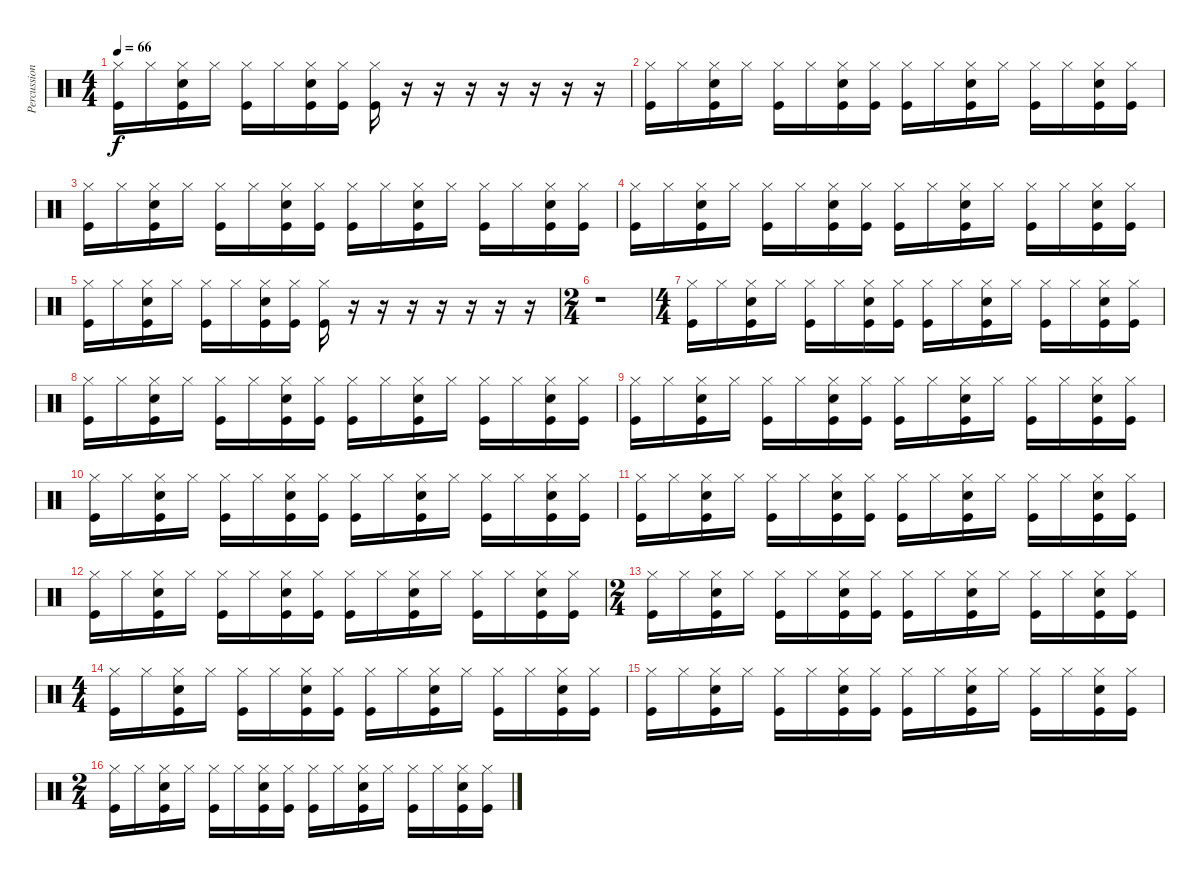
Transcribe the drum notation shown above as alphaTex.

\track ("Percussion" "Percussion") {instrument percussion}
\staff {score}
\articulation defaults
\ts (4 4)
\tempo 66
\clef neutral
\ks c
("Hi-Hat (closed)" "Kick (hit)").16{dy f} "Hi-Hat (closed)".16 ("Hi-Hat (closed)" "Kick (hit)" "Electric Snare (hit)").16 "Hi-Hat (closed)".16 ("Hi-Hat (closed)" "Kick (hit)").16 "Hi-Hat (closed)".16 ("Hi-Hat (closed)" "Kick (hit)" "Electric Snare (hit)").16 ("Hi-Hat (closed)" "Kick (hit)").16 ("Hi-Hat (closed)" "Kick (hit)").16 r.16 r.16 r.16 r.16 r.16 r.16 r.16 |
("Hi-Hat (closed)" "Kick (hit)").16 "Hi-Hat (closed)".16 ("Hi-Hat (closed)" "Kick (hit)" "Electric Snare (hit)").16 "Hi-Hat (closed)".16 ("Hi-Hat (closed)" "Kick (hit)").16 "Hi-Hat (closed)".16 ("Hi-Hat (closed)" "Kick (hit)" "Electric Snare (hit)").16 ("Hi-Hat (closed)" "Kick (hit)").16 ("Hi-Hat (closed)" "Kick (hit)").16 "Hi-Hat (closed)".16 ("Hi-Hat (closed)" "Kick (hit)" "Electric Snare (hit)").16 "Hi-Hat (closed)".16 ("Hi-Hat (closed)" "Kick (hit)").16 "Hi-Hat (closed)".16 ("Hi-Hat (closed)" "Kick (hit)" "Electric Snare (hit)").16 ("Hi-Hat (closed)" "Kick (hit)").16 |
("Hi-Hat (closed)" "Kick (hit)").16 "Hi-Hat (closed)".16 ("Hi-Hat (closed)" "Kick (hit)" "Electric Snare (hit)").16 "Hi-Hat (closed)".16 ("Hi-Hat (closed)" "Kick (hit)").16 "Hi-Hat (closed)".16 ("Hi-Hat (closed)" "Kick (hit)" "Electric Snare (hit)").16 ("Hi-Hat (closed)" "Kick (hit)").16 ("Hi-Hat (closed)" "Kick (hit)").16 "Hi-Hat (closed)".16 ("Hi-Hat (closed)" "Kick (hit)" "Electric Snare (hit)").16 "Hi-Hat (closed)".16 ("Hi-Hat (closed)" "Kick (hit)").16 "Hi-Hat (closed)".16 ("Hi-Hat (closed)" "Kick (hit)" "Electric Snare (hit)").16 ("Hi-Hat (closed)" "Kick (hit)").16 |
("Hi-Hat (closed)" "Kick (hit)").16 "Hi-Hat (closed)".16 ("Hi-Hat (closed)" "Kick (hit)" "Electric Snare (hit)").16 "Hi-Hat (closed)".16 ("Hi-Hat (closed)" "Kick (hit)").16 "Hi-Hat (closed)".16 ("Hi-Hat (closed)" "Kick (hit)" "Electric Snare (hit)").16 ("Hi-Hat (closed)" "Kick (hit)").16 ("Hi-Hat (closed)" "Kick (hit)").16 "Hi-Hat (closed)".16 ("Hi-Hat (closed)" "Kick (hit)" "Electric Snare (hit)").16 "Hi-Hat (closed)".16 ("Hi-Hat (closed)" "Kick (hit)").16 "Hi-Hat (closed)".16 ("Hi-Hat (closed)" "Kick (hit)" "Electric Snare (hit)").16 ("Hi-Hat (closed)" "Kick (hit)").16 |
("Hi-Hat (closed)" "Kick (hit)").16 "Hi-Hat (closed)".16 ("Hi-Hat (closed)" "Kick (hit)" "Electric Snare (hit)").16 "Hi-Hat (closed)".16 ("Hi-Hat (closed)" "Kick (hit)").16 "Hi-Hat (closed)".16 ("Hi-Hat (closed)" "Kick (hit)" "Electric Snare (hit)").16 ("Hi-Hat (closed)" "Kick (hit)").16 ("Hi-Hat (closed)" "Kick (hit)").16 r.16 r.16 r.16 r.16 r.16 r.16 r.16 |
\ts (2 4)
r.1 |
\ts (4 4)
("Hi-Hat (closed)" "Kick (hit)").16 "Hi-Hat (closed)".16 ("Hi-Hat (closed)" "Kick (hit)" "Electric Snare (hit)").16 "Hi-Hat (closed)".16 ("Hi-Hat (closed)" "Kick (hit)").16 "Hi-Hat (closed)".16 ("Hi-Hat (closed)" "Kick (hit)" "Electric Snare (hit)").16 ("Hi-Hat (closed)" "Kick (hit)").16 ("Hi-Hat (closed)" "Kick (hit)").16 "Hi-Hat (closed)".16 ("Hi-Hat (closed)" "Kick (hit)" "Electric Snare (hit)").16 "Hi-Hat (closed)".16 ("Hi-Hat (closed)" "Kick (hit)").16 "Hi-Hat (closed)".16 ("Hi-Hat (closed)" "Kick (hit)" "Electric Snare (hit)").16 ("Hi-Hat (closed)" "Kick (hit)").16 |
("Hi-Hat (closed)" "Kick (hit)").16 "Hi-Hat (closed)".16 ("Hi-Hat (closed)" "Kick (hit)" "Electric Snare (hit)").16 "Hi-Hat (closed)".16 ("Hi-Hat (closed)" "Kick (hit)").16 "Hi-Hat (closed)".16 ("Hi-Hat (closed)" "Kick (hit)" "Electric Snare (hit)").16 ("Hi-Hat (closed)" "Kick (hit)").16 ("Hi-Hat (closed)" "Kick (hit)").16 "Hi-Hat (closed)".16 ("Hi-Hat (closed)" "Kick (hit)" "Electric Snare (hit)").16 "Hi-Hat (closed)".16 ("Hi-Hat (closed)" "Kick (hit)").16 "Hi-Hat (closed)".16 ("Hi-Hat (closed)" "Kick (hit)" "Electric Snare (hit)").16 ("Hi-Hat (closed)" "Kick (hit)").16 |
("Hi-Hat (closed)" "Kick (hit)").16 "Hi-Hat (closed)".16 ("Hi-Hat (closed)" "Kick (hit)" "Electric Snare (hit)").16 "Hi-Hat (closed)".16 ("Hi-Hat (closed)" "Kick (hit)").16 "Hi-Hat (closed)".16 ("Hi-Hat (closed)" "Kick (hit)" "Electric Snare (hit)").16 ("Hi-Hat (closed)" "Kick (hit)").16 ("Hi-Hat (closed)" "Kick (hit)").16 "Hi-Hat (closed)".16 ("Hi-Hat (closed)" "Kick (hit)" "Electric Snare (hit)").16 "Hi-Hat (closed)".16 ("Hi-Hat (closed)" "Kick (hit)").16 "Hi-Hat (closed)".16 ("Hi-Hat (closed)" "Kick (hit)" "Electric Snare (hit)").16 ("Hi-Hat (closed)" "Kick (hit)").16 |
("Hi-Hat (closed)" "Kick (hit)").16 "Hi-Hat (closed)".16 ("Hi-Hat (closed)" "Kick (hit)" "Electric Snare (hit)").16 "Hi-Hat (closed)".16 ("Hi-Hat (closed)" "Kick (hit)").16 "Hi-Hat (closed)".16 ("Hi-Hat (closed)" "Kick (hit)" "Electric Snare (hit)").16 ("Hi-Hat (closed)" "Kick (hit)").16 ("Hi-Hat (closed)" "Kick (hit)").16 "Hi-Hat (closed)".16 ("Hi-Hat (closed)" "Kick (hit)" "Electric Snare (hit)").16 "Hi-Hat (closed)".16 ("Hi-Hat (closed)" "Kick (hit)").16 "Hi-Hat (closed)".16 ("Hi-Hat (closed)" "Kick (hit)" "Electric Snare (hit)").16 ("Hi-Hat (closed)" "Kick (hit)").16 |
("Hi-Hat (closed)" "Kick (hit)").16 "Hi-Hat (closed)".16 ("Hi-Hat (closed)" "Kick (hit)" "Electric Snare (hit)").16 "Hi-Hat (closed)".16 ("Hi-Hat (closed)" "Kick (hit)").16 "Hi-Hat (closed)".16 ("Hi-Hat (closed)" "Kick (hit)" "Electric Snare (hit)").16 ("Hi-Hat (closed)" "Kick (hit)").16 ("Hi-Hat (closed)" "Kick (hit)").16 "Hi-Hat (closed)".16 ("Hi-Hat (closed)" "Kick (hit)" "Electric Snare (hit)").16 "Hi-Hat (closed)".16 ("Hi-Hat (closed)" "Kick (hit)").16 "Hi-Hat (closed)".16 ("Hi-Hat (closed)" "Kick (hit)" "Electric Snare (hit)").16 ("Hi-Hat (closed)" "Kick (hit)").16 |
("Hi-Hat (closed)" "Kick (hit)").16 "Hi-Hat (closed)".16 ("Hi-Hat (closed)" "Kick (hit)" "Electric Snare (hit)").16 "Hi-Hat (closed)".16 ("Hi-Hat (closed)" "Kick (hit)").16 "Hi-Hat (closed)".16 ("Hi-Hat (closed)" "Kick (hit)" "Electric Snare (hit)").16 ("Hi-Hat (closed)" "Kick (hit)").16 ("Hi-Hat (closed)" "Kick (hit)").16 "Hi-Hat (closed)".16 ("Hi-Hat (closed)" "Kick (hit)" "Electric Snare (hit)").16 "Hi-Hat (closed)".16 ("Hi-Hat (closed)" "Kick (hit)").16 "Hi-Hat (closed)".16 ("Hi-Hat (closed)" "Kick (hit)" "Electric Snare (hit)").16 ("Hi-Hat (closed)" "Kick (hit)").16 |
\ts (2 4)
("Hi-Hat (closed)" "Kick (hit)").16 "Hi-Hat (closed)".16 ("Hi-Hat (closed)" "Kick (hit)" "Electric Snare (hit)").16 "Hi-Hat (closed)".16 ("Hi-Hat (closed)" "Kick (hit)").16 "Hi-Hat (closed)".16 ("Hi-Hat (closed)" "Kick (hit)" "Electric Snare (hit)").16 ("Hi-Hat (closed)" "Kick (hit)").16 ("Hi-Hat (closed)" "Kick (hit)").16 "Hi-Hat (closed)".16 ("Hi-Hat (closed)" "Kick (hit)" "Electric Snare (hit)").16 "Hi-Hat (closed)".16 ("Hi-Hat (closed)" "Kick (hit)").16 "Hi-Hat (closed)".16 ("Hi-Hat (closed)" "Kick (hit)" "Electric Snare (hit)").16 ("Hi-Hat (closed)" "Kick (hit)").16 |
\ts (4 4)
("Hi-Hat (closed)" "Kick (hit)").16 "Hi-Hat (closed)".16 ("Hi-Hat (closed)" "Kick (hit)" "Electric Snare (hit)").16 "Hi-Hat (closed)".16 ("Hi-Hat (closed)" "Kick (hit)").16 "Hi-Hat (closed)".16 ("Hi-Hat (closed)" "Kick (hit)" "Electric Snare (hit)").16 ("Hi-Hat (closed)" "Kick (hit)").16 ("Hi-Hat (closed)" "Kick (hit)").16 "Hi-Hat (closed)".16 ("Hi-Hat (closed)" "Kick (hit)" "Electric Snare (hit)").16 "Hi-Hat (closed)".16 ("Hi-Hat (closed)" "Kick (hit)").16 "Hi-Hat (closed)".16 ("Hi-Hat (closed)" "Kick (hit)" "Electric Snare (hit)").16 ("Hi-Hat (closed)" "Kick (hit)").16 |
("Hi-Hat (closed)" "Kick (hit)").16 "Hi-Hat (closed)".16 ("Hi-Hat (closed)" "Kick (hit)" "Electric Snare (hit)").16 "Hi-Hat (closed)".16 ("Hi-Hat (closed)" "Kick (hit)").16 "Hi-Hat (closed)".16 ("Hi-Hat (closed)" "Kick (hit)" "Electric Snare (hit)").16 ("Hi-Hat (closed)" "Kick (hit)").16 ("Hi-Hat (closed)" "Kick (hit)").16 "Hi-Hat (closed)".16 ("Hi-Hat (closed)" "Kick (hit)" "Electric Snare (hit)").16 "Hi-Hat (closed)".16 ("Hi-Hat (closed)" "Kick (hit)").16 "Hi-Hat (closed)".16 ("Hi-Hat (closed)" "Kick (hit)" "Electric Snare (hit)").16 ("Hi-Hat (closed)" "Kick (hit)").16 |
\ts (2 4)
("Hi-Hat (closed)" "Kick (hit)").16 "Hi-Hat (closed)".16 ("Hi-Hat (closed)" "Kick (hit)" "Electric Snare (hit)").16 "Hi-Hat (closed)".16 ("Hi-Hat (closed)" "Kick (hit)").16 "Hi-Hat (closed)".16 ("Hi-Hat (closed)" "Kick (hit)" "Electric Snare (hit)").16 ("Hi-Hat (closed)" "Kick (hit)").16 ("Hi-Hat (closed)" "Kick (hit)").16 "Hi-Hat (closed)".16 ("Hi-Hat (closed)" "Kick (hit)" "Electric Snare (hit)").16 "Hi-Hat (closed)".16 ("Hi-Hat (closed)" "Kick (hit)").16 "Hi-Hat (closed)".16 ("Hi-Hat (closed)" "Kick (hit)" "Electric Snare (hit)").16 ("Hi-Hat (closed)" "Kick (hit)").16
